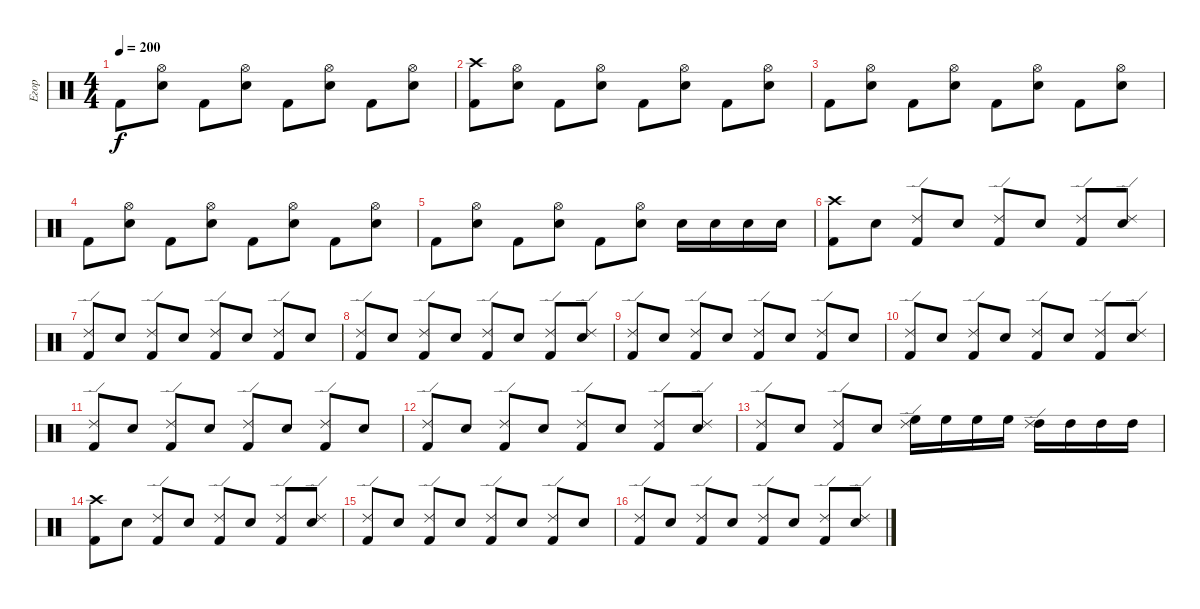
\track ("Егор" "Егор") {instrument percussion}
\staff {score}
\articulation defaults
\ts (4 4)
\tempo 200
\clef neutral
\ks c "Kick (hit) 2".8{dy f}
("Hi-Hat (open)" "Snare (hit) 2").8 "Kick (hit) 2".8 ("Hi-Hat (open)" "Snare (hit) 2").8 "Kick (hit) 2".8 ("Hi-Hat (open)" "Snare (hit) 2").8 "Kick (hit) 2".8 ("Hi-Hat (open)" "Snare (hit) 2").8 |
("Crash high (hit)" "Kick (hit) 2").8 ("Hi-Hat (open)" "Snare (hit) 2").8 "Kick (hit) 2".8 ("Hi-Hat (open)" "Snare (hit) 2").8 "Kick (hit) 2".8 ("Hi-Hat (open)" "Snare (hit) 2").8 "Kick (hit) 2".8 ("Hi-Hat (open)" "Snare (hit) 2").8 |
"Kick (hit) 2".8 ("Hi-Hat (open)" "Snare (hit) 2").8 "Kick (hit) 2".8 ("Hi-Hat (open)" "Snare (hit) 2").8 "Kick (hit) 2".8 ("Hi-Hat (open)" "Snare (hit) 2").8 "Kick (hit) 2".8 ("Hi-Hat (open)" "Snare (hit) 2").8 |
"Kick (hit) 2".8 ("Hi-Hat (open)" "Snare (hit) 2").8 "Kick (hit) 2".8 ("Hi-Hat (open)" "Snare (hit) 2").8 "Kick (hit) 2".8 ("Hi-Hat (open)" "Snare (hit) 2").8 "Kick (hit) 2".8 ("Hi-Hat (open)" "Snare (hit) 2").8 |
"Kick (hit) 2".8 ("Hi-Hat (open)" "Snare (hit) 2").8 "Kick (hit) 2".8 ("Hi-Hat (open)" "Snare (hit) 2").8 "Kick (hit) 2".8 ("Hi-Hat (open)" "Snare (hit) 2").8 "Snare (hit) 2".16 "Snare (hit) 2".16 "Snare (hit) 2".16 "Snare (hit) 2".16 |
("Kick (hit) 2" "Crash high (hit)").8 "Snare (hit) 2".8 ("Kick (hit) 2" "Ride (edge) 2").8 "Snare (hit) 2".8 ("Kick (hit) 2" "Ride (edge) 2").8 "Snare (hit) 2".8 ("Kick (hit) 2" "Ride (edge) 2").8 ("Snare (hit) 2" "Ride (edge) 2").8 |
("Kick (hit) 2" "Ride (edge) 2").8 "Snare (hit) 2".8 ("Kick (hit) 2" "Ride (edge) 2").8 "Snare (hit) 2".8 ("Kick (hit) 2" "Ride (edge) 2").8 "Snare (hit) 2".8 ("Kick (hit) 2" "Ride (edge) 2").8 "Snare (hit) 2".8 |
("Kick (hit) 2" "Ride (edge) 2").8 "Snare (hit) 2".8 ("Kick (hit) 2" "Ride (edge) 2").8 "Snare (hit) 2".8 ("Kick (hit) 2" "Ride (edge) 2").8 "Snare (hit) 2".8 ("Kick (hit) 2" "Ride (edge) 2").8 ("Snare (hit) 2" "Ride (edge) 2").8 |
("Kick (hit) 2" "Ride (edge) 2").8 "Snare (hit) 2".8 ("Kick (hit) 2" "Ride (edge) 2").8 "Snare (hit) 2".8 ("Kick (hit) 2" "Ride (edge) 2").8 "Snare (hit) 2".8 ("Kick (hit) 2" "Ride (edge) 2").8 "Snare (hit) 2".8 |
("Kick (hit) 2" "Ride (edge) 2").8 "Snare (hit) 2".8 ("Kick (hit) 2" "Ride (edge) 2").8 "Snare (hit) 2".8 ("Kick (hit) 2" "Ride (edge) 2").8 "Snare (hit) 2".8 ("Kick (hit) 2" "Ride (edge) 2").8 ("Snare (hit) 2" "Ride (edge) 2").8 |
("Kick (hit) 2" "Ride (edge) 2").8 "Snare (hit) 2".8 ("Kick (hit) 2" "Ride (edge) 2").8 "Snare (hit) 2".8 ("Kick (hit) 2" "Ride (edge) 2").8 "Snare (hit) 2".8 ("Kick (hit) 2" "Ride (edge) 2").8 "Snare (hit) 2".8 |
("Kick (hit) 2" "Ride (edge) 2").8 "Snare (hit) 2".8 ("Kick (hit) 2" "Ride (edge) 2").8 "Snare (hit) 2".8 ("Kick (hit) 2" "Ride (edge) 2").8 "Snare (hit) 2".8 ("Kick (hit) 2" "Ride (edge) 2").8 ("Snare (hit) 2" "Ride (edge) 2").8 |
("Kick (hit) 2" "Ride (edge) 2").8 "Snare (hit) 2".8 ("Kick (hit) 2" "Ride (edge) 2").8 "Snare (hit) 2".8 ("High Floor Tom (hit)" "Ride (edge) 2").16 "High Floor Tom (hit)".16 "High Floor Tom (hit)".16 "High Floor Tom (hit)".16 ("High Tom (hit)" "Ride (edge) 2").16 "High Tom (hit)".16 "High Tom (hit)".16 "High Tom (hit)".16 |
("Kick (hit) 2" "Crash high (hit)").8 "Snare (hit) 2".8 ("Kick (hit) 2" "Ride (edge) 2").8 "Snare (hit) 2".8 ("Kick (hit) 2" "Ride (edge) 2").8 "Snare (hit) 2".8 ("Kick (hit) 2" "Ride (edge) 2").8 ("Snare (hit) 2" "Ride (edge) 2").8 |
("Kick (hit) 2" "Ride (edge) 2").8 "Snare (hit) 2".8 ("Kick (hit) 2" "Ride (edge) 2").8 "Snare (hit) 2".8 ("Kick (hit) 2" "Ride (edge) 2").8 "Snare (hit) 2".8 ("Kick (hit) 2" "Ride (edge) 2").8 "Snare (hit) 2".8 |
("Kick (hit) 2" "Ride (edge) 2").8 "Snare (hit) 2".8 ("Kick (hit) 2" "Ride (edge) 2").8 "Snare (hit) 2".8 ("Kick (hit) 2" "Ride (edge) 2").8 "Snare (hit) 2".8 ("Kick (hit) 2" "Ride (edge) 2").8 ("Snare (hit) 2" "Ride (edge) 2").8
